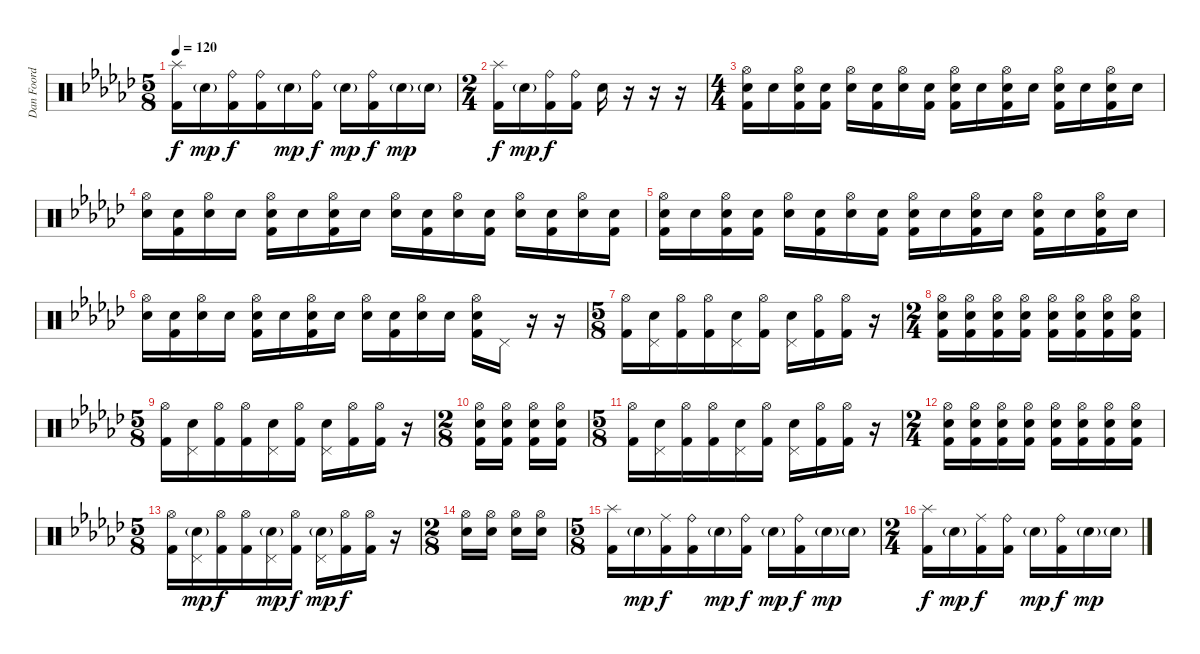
\track ("Dan Foord 2" "Dan Foord ") {instrument percussion}
\staff {score}
\articulation defaults
\ts (5 8)
\tempo 120
\clef neutral
\ks gb
("Splash (hit)" "Kick (hit) 2").16{dy f} "Snare (hit) 2"{g}.16{dy mp} ("Ride (bell)" "Kick (hit) 2").16{dy f} ("Ride (bell)" "Kick (hit) 2").16 "Snare (hit) 2"{g}.16{dy mp} ("Ride (bell)" "Kick (hit) 2").16{dy f} "Snare (hit) 2"{g}.16{dy mp} ("Ride (bell)" "Kick (hit) 2").16{dy f} "Snare (hit) 2"{g}.16{dy mp} "Snare (hit) 2"{g}.16 |
\ts (2 4)
("Splash (hit)" "Kick (hit) 2").16{dy f} "Snare (hit) 2"{g}.16{dy mp} ("Ride (bell)" "Kick (hit) 2").16{dy f} ("Ride (bell)" "Kick (hit) 2").16 "Snare (hit) 2".16 r.16 r.16 r.16 |
\ts (4 4)
("Hi-Hat (open)" "Snare (hit) 2" "Kick (hit) 2").16 "Snare (hit) 2".16 ("Hi-Hat (open)" "Snare (hit) 2" "Kick (hit) 2").16 ("Snare (hit) 2" "Kick (hit) 2").16 ("Hi-Hat (open)" "Snare (hit) 2").16 ("Snare (hit) 2" "Kick (hit) 2").16 ("Hi-Hat (open)" "Snare (hit) 2").16 ("Snare (hit) 2" "Kick (hit) 2").16 ("Hi-Hat (open)" "Snare (hit) 2" "Kick (hit) 2").16 "Snare (hit) 2".16 ("Hi-Hat (open)" "Snare (hit) 2" "Kick (hit) 2").16 "Snare (hit) 2".16 ("Hi-Hat (open)" "Snare (hit) 2" "Kick (hit) 2").16 "Snare (hit) 2".16 ("Hi-Hat (open)" "Snare (hit) 2" "Kick (hit) 2").16 "Snare (hit) 2".16 |
("Hi-Hat (open)" "Snare (hit) 2").16 ("Snare (hit) 2" "Kick (hit) 2").16 ("Hi-Hat (open)" "Snare (hit) 2").16 "Snare (hit) 2".16 ("Hi-Hat (open)" "Snare (hit) 2" "Kick (hit) 2").16 "Snare (hit) 2".16 ("Hi-Hat (open)" "Snare (hit) 2" "Kick (hit) 2").16 "Snare (hit) 2".16 ("Hi-Hat (open)" "Snare (hit) 2").16 ("Snare (hit) 2" "Kick (hit) 2").16 ("Hi-Hat (open)" "Snare (hit) 2").16 ("Snare (hit) 2" "Kick (hit) 2").16 ("Hi-Hat (open)" "Snare (hit) 2").16 ("Snare (hit) 2" "Kick (hit) 2").16 ("Hi-Hat (open)" "Snare (hit) 2").16 ("Snare (hit) 2" "Kick (hit) 2").16 |
("Hi-Hat (open)" "Snare (hit) 2" "Kick (hit) 2").16 "Snare (hit) 2".16 ("Hi-Hat (open)" "Snare (hit) 2" "Kick (hit) 2").16 ("Snare (hit) 2" "Kick (hit) 2").16 ("Hi-Hat (open)" "Snare (hit) 2").16 ("Snare (hit) 2" "Kick (hit) 2").16 ("Hi-Hat (open)" "Snare (hit) 2").16 ("Snare (hit) 2" "Kick (hit) 2").16 ("Hi-Hat (open)" "Snare (hit) 2" "Kick (hit) 2").16 "Snare (hit) 2".16 ("Hi-Hat (open)" "Snare (hit) 2" "Kick (hit) 2").16 "Snare (hit) 2".16 ("Hi-Hat (open)" "Snare (hit) 2" "Kick (hit) 2").16 "Snare (hit) 2".16 ("Hi-Hat (open)" "Snare (hit) 2" "Kick (hit) 2").16 "Snare (hit) 2".16 |
("Hi-Hat (open)" "Snare (hit) 2").16 ("Snare (hit) 2" "Kick (hit) 2").16 ("Hi-Hat (open)" "Snare (hit) 2").16 "Snare (hit) 2".16 ("Hi-Hat (open)" "Snare (hit) 2" "Kick (hit) 2").16 "Snare (hit) 2".16 ("Hi-Hat (open)" "Snare (hit) 2" "Kick (hit) 2").16 "Snare (hit) 2".16 ("Hi-Hat (open)" "Snare (hit) 2").16 ("Snare (hit) 2" "Kick (hit) 2").16 ("Hi-Hat (open)" "Snare (hit) 2").16 "Snare (hit) 2".16 ("Hi-Hat (open)" "Snare (hit) 2" "Kick (hit) 2").16 "Pedal Hi-Hat (hit)".16 r.16 r.16 |
\ts (5 8)
("Hi-Hat (open)" "Kick (hit) 2").16 ("Snare (hit) 2" "Pedal Hi-Hat (hit)").16 ("Hi-Hat (open)" "Kick (hit) 2").16 ("Hi-Hat (open)" "Kick (hit) 2").16 ("Snare (hit) 2" "Pedal Hi-Hat (hit)").16 ("Hi-Hat (open)" "Kick (hit) 2").16 ("Snare (hit) 2" "Pedal Hi-Hat (hit)").16 ("Hi-Hat (open)" "Kick (hit) 2").16 ("Hi-Hat (open)" "Kick (hit) 2").16 r.16 |
\ts (2 4)
("Hi-Hat (open)" "Snare (hit) 2" "Kick (hit) 2").16 ("Hi-Hat (open)" "Snare (hit) 2" "Kick (hit) 2").16 ("Hi-Hat (open)" "Snare (hit) 2" "Kick (hit) 2").16 ("Hi-Hat (open)" "Snare (hit) 2" "Kick (hit) 2").16 ("Hi-Hat (open)" "Snare (hit) 2" "Kick (hit) 2").16 ("Hi-Hat (open)" "Snare (hit) 2" "Kick (hit) 2").16 ("Hi-Hat (open)" "Snare (hit) 2" "Kick (hit) 2").16 ("Hi-Hat (open)" "Snare (hit) 2" "Kick (hit) 2").16 |
\ts (5 8)
("Hi-Hat (open)" "Kick (hit) 2").16 ("Snare (hit) 2" "Pedal Hi-Hat (hit)").16 ("Hi-Hat (open)" "Kick (hit) 2").16 ("Hi-Hat (open)" "Kick (hit) 2").16 ("Snare (hit) 2" "Pedal Hi-Hat (hit)").16 ("Hi-Hat (open)" "Kick (hit) 2").16 ("Snare (hit) 2" "Pedal Hi-Hat (hit)").16 ("Hi-Hat (open)" "Kick (hit) 2").16 ("Hi-Hat (open)" "Kick (hit) 2").16 r.16 |
\ts (2 8)
("Hi-Hat (open)" "Snare (hit) 2" "Kick (hit) 2").16 ("Hi-Hat (open)" "Snare (hit) 2" "Kick (hit) 2").16 ("Hi-Hat (open)" "Snare (hit) 2" "Kick (hit) 2").16 ("Hi-Hat (open)" "Snare (hit) 2" "Kick (hit) 2").16 |
\ts (5 8)
("Hi-Hat (open)" "Kick (hit) 2").16 ("Snare (hit) 2" "Pedal Hi-Hat (hit)").16 ("Hi-Hat (open)" "Kick (hit) 2").16 ("Hi-Hat (open)" "Kick (hit) 2").16 ("Snare (hit) 2" "Pedal Hi-Hat (hit)").16 ("Hi-Hat (open)" "Kick (hit) 2").16 ("Snare (hit) 2" "Pedal Hi-Hat (hit)").16 ("Hi-Hat (open)" "Kick (hit) 2").16 ("Hi-Hat (open)" "Kick (hit) 2").16 r.16 |
\ts (2 4)
("Hi-Hat (open)" "Snare (hit) 2" "Kick (hit) 2").16 ("Hi-Hat (open)" "Snare (hit) 2" "Kick (hit) 2").16 ("Hi-Hat (open)" "Snare (hit) 2" "Kick (hit) 2").16 ("Hi-Hat (open)" "Snare (hit) 2" "Kick (hit) 2").16 ("Hi-Hat (open)" "Snare (hit) 2" "Kick (hit) 2").16 ("Hi-Hat (open)" "Snare (hit) 2" "Kick (hit) 2").16 ("Hi-Hat (open)" "Snare (hit) 2" "Kick (hit) 2").16 ("Hi-Hat (open)" "Snare (hit) 2" "Kick (hit) 2").16 |
\ts (5 8)
("Hi-Hat (open)" "Kick (hit) 2").16 ("Snare (hit) 2"{g} "Pedal Hi-Hat (hit)").16{dy mp} ("Hi-Hat (open)" "Kick (hit) 2").16{dy f} ("Hi-Hat (open)" "Kick (hit) 2").16 ("Snare (hit) 2"{g} "Pedal Hi-Hat (hit)").16{dy mp} ("Hi-Hat (open)" "Kick (hit) 2").16{dy f} ("Snare (hit) 2"{g} "Pedal Hi-Hat (hit)").16{dy mp} ("Hi-Hat (open)" "Kick (hit) 2").16{dy f} ("Hi-Hat (open)" "Kick (hit) 2").16 r.16 |
\ts (2 8)
("Hi-Hat (open)" "Snare (hit) 2").16 ("Hi-Hat (open)" "Snare (hit) 2").16 ("Hi-Hat (open)" "Snare (hit) 2").16 ("Hi-Hat (open)" "Snare (hit) 2").16 |
\ts (5 8)
("Splash (hit)" "Kick (hit) 2").16 "Snare (hit) 2"{g}.16{dy mp} ("Ride (middle)" "Kick (hit) 2").16{dy f} ("Ride (bell)" "Kick (hit) 2").16 "Snare (hit) 2"{g}.16{dy mp} ("Ride (bell)" "Kick (hit) 2").16{dy f} "Snare (hit) 2"{g}.16{dy mp} ("Ride (bell)" "Kick (hit) 2").16{dy f} "Snare (hit) 2"{g}.16{dy mp} "Snare (hit) 2"{g}.16 |
\ts (2 4)
("Splash (hit)" "Kick (hit) 2").16{dy f} "Snare (hit) 2"{g}.16{dy mp} ("Ride (middle)" "Kick (hit) 2").16{dy f} ("Ride (bell)" "Kick (hit) 2").16 "Snare (hit) 2"{g}.16{dy mp} ("Ride (bell)" "Kick (hit) 2").16{dy f} "Snare (hit) 2"{g}.16{dy mp} "Snare (hit) 2"{g}.16
